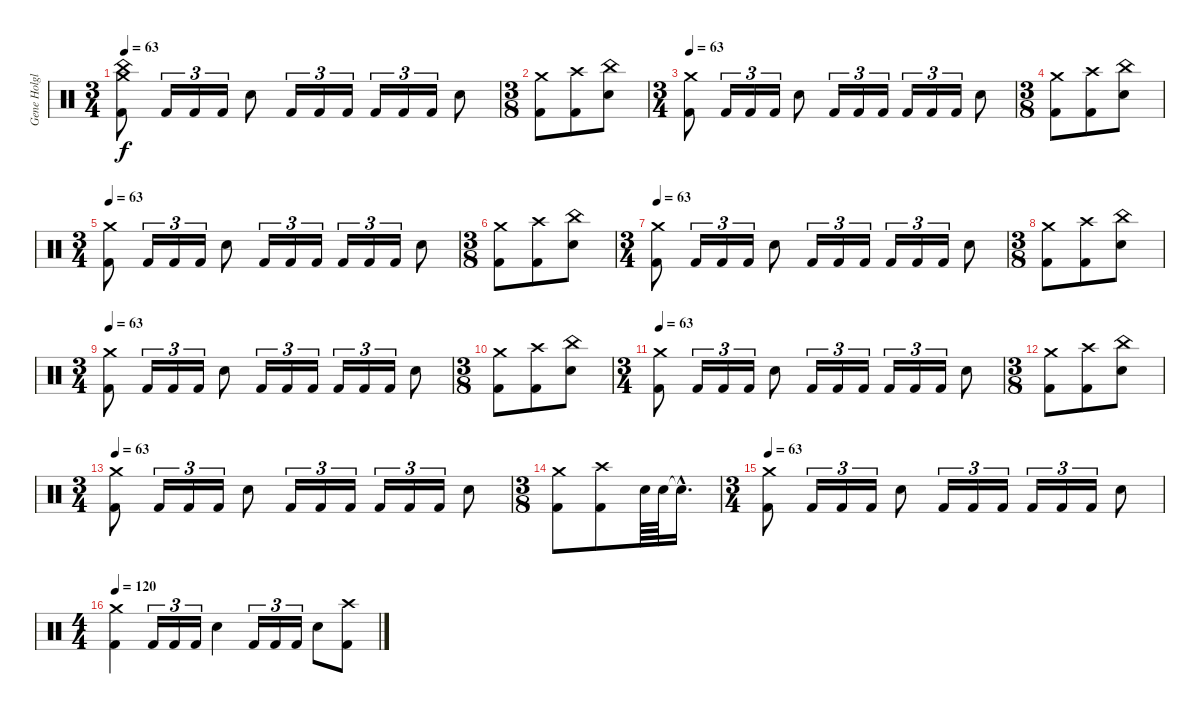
\track ("Gene Holglan" "Gene Holgl") {instrument percussion}
\staff {score}
\articulation defaults
\ts (3 4)
\tempo 63
\clef neutral
\ks c
("Crash medium (hit)" "China (hit)" "Kick (hit) 2").8{dy f} "Kick (hit) 2".16{tu (3 2)} "Kick (hit) 2".16{tu (3 2)} "Kick (hit) 2".16{tu (3 2)} "Snare (hit) 2".8 "Kick (hit) 2".16{tu (3 2)} "Kick (hit) 2".16{tu (3 2)} "Kick (hit) 2".16{tu (3 2)} "Kick (hit) 2".16{tu (3 2)} "Kick (hit) 2".16{tu (3 2)} "Kick (hit) 2".16{tu (3 2)} "Snare (hit) 2".8 |
\ts (3 8)
("Crash medium (hit)" "Kick (hit) 2").8 ("Crash high (hit)" "Kick (hit) 2").8 ("China (hit)" "Snare (hit) 2").8 |
\ts (3 4)
\tempo 63
("Crash medium (hit)" "Kick (hit) 2").8 "Kick (hit) 2".16{tu (3 2)} "Kick (hit) 2".16{tu (3 2)} "Kick (hit) 2".16{tu (3 2)} "Snare (hit) 2".8 "Kick (hit) 2".16{tu (3 2)} "Kick (hit) 2".16{tu (3 2)} "Kick (hit) 2".16{tu (3 2)} "Kick (hit) 2".16{tu (3 2)} "Kick (hit) 2".16{tu (3 2)} "Kick (hit) 2".16{tu (3 2)} "Snare (hit) 2".8 |
\ts (3 8)
("Crash medium (hit)" "Kick (hit) 2").8 ("Crash high (hit)" "Kick (hit) 2").8 ("China (hit)" "Snare (hit) 2").8 |
\ts (3 4)
\tempo 63
("Crash medium (hit)" "Kick (hit) 2").8 "Kick (hit) 2".16{tu (3 2)} "Kick (hit) 2".16{tu (3 2)} "Kick (hit) 2".16{tu (3 2)} "Snare (hit) 2".8 "Kick (hit) 2".16{tu (3 2)} "Kick (hit) 2".16{tu (3 2)} "Kick (hit) 2".16{tu (3 2)} "Kick (hit) 2".16{tu (3 2)} "Kick (hit) 2".16{tu (3 2)} "Kick (hit) 2".16{tu (3 2)} "Snare (hit) 2".8 |
\ts (3 8)
("Crash medium (hit)" "Kick (hit) 2").8 ("Crash high (hit)" "Kick (hit) 2").8 ("China (hit)" "Snare (hit) 2").8 |
\ts (3 4)
\tempo 63
("Crash medium (hit)" "Kick (hit) 2").8 "Kick (hit) 2".16{tu (3 2)} "Kick (hit) 2".16{tu (3 2)} "Kick (hit) 2".16{tu (3 2)} "Snare (hit) 2".8 "Kick (hit) 2".16{tu (3 2)} "Kick (hit) 2".16{tu (3 2)} "Kick (hit) 2".16{tu (3 2)} "Kick (hit) 2".16{tu (3 2)} "Kick (hit) 2".16{tu (3 2)} "Kick (hit) 2".16{tu (3 2)} "Snare (hit) 2".8 |
\ts (3 8)
("Crash medium (hit)" "Kick (hit) 2").8 ("Crash high (hit)" "Kick (hit) 2").8 ("China (hit)" "Snare (hit) 2").8 |
\ts (3 4)
\tempo 63
("Crash medium (hit)" "Kick (hit) 2").8 "Kick (hit) 2".16{tu (3 2)} "Kick (hit) 2".16{tu (3 2)} "Kick (hit) 2".16{tu (3 2)} "Snare (hit) 2".8 "Kick (hit) 2".16{tu (3 2)} "Kick (hit) 2".16{tu (3 2)} "Kick (hit) 2".16{tu (3 2)} "Kick (hit) 2".16{tu (3 2)} "Kick (hit) 2".16{tu (3 2)} "Kick (hit) 2".16{tu (3 2)} "Snare (hit) 2".8 |
\ts (3 8)
("Crash medium (hit)" "Kick (hit) 2").8 ("Crash high (hit)" "Kick (hit) 2").8 ("China (hit)" "Snare (hit) 2").8 |
\ts (3 4)
\tempo 63
("Crash medium (hit)" "Kick (hit) 2").8 "Kick (hit) 2".16{tu (3 2)} "Kick (hit) 2".16{tu (3 2)} "Kick (hit) 2".16{tu (3 2)} "Snare (hit) 2".8 "Kick (hit) 2".16{tu (3 2)} "Kick (hit) 2".16{tu (3 2)} "Kick (hit) 2".16{tu (3 2)} "Kick (hit) 2".16{tu (3 2)} "Kick (hit) 2".16{tu (3 2)} "Kick (hit) 2".16{tu (3 2)} "Snare (hit) 2".8 |
\ts (3 8)
("Crash medium (hit)" "Kick (hit) 2").8 ("Crash high (hit)" "Kick (hit) 2").8 ("China (hit)" "Snare (hit) 2").8 |
\ts (3 4)
\tempo 63
("Crash medium (hit)" "Kick (hit) 2").8 "Kick (hit) 2".16{tu (3 2)} "Kick (hit) 2".16{tu (3 2)} "Kick (hit) 2".16{tu (3 2)} "Snare (hit) 2".8 "Kick (hit) 2".16{tu (3 2)} "Kick (hit) 2".16{tu (3 2)} "Kick (hit) 2".16{tu (3 2)} "Kick (hit) 2".16{tu (3 2)} "Kick (hit) 2".16{tu (3 2)} "Kick (hit) 2".16{tu (3 2)} "Snare (hit) 2".8 |
\ts (3 8)
("Crash medium (hit)" "Kick (hit) 2").8 ("Crash high (hit)" "Kick (hit) 2").8 "Snare (hit) 2".64 "Snare (hit) 2".64 "Snare (hit)"{hac t}.16{d} |
\ts (3 4)
\tempo 63
("Crash medium (hit)" "Kick (hit) 2").8 "Kick (hit) 2".16{tu (3 2)} "Kick (hit) 2".16{tu (3 2)} "Kick (hit) 2".16{tu (3 2)} "Snare (hit) 2".8 "Kick (hit) 2".16{tu (3 2)} "Kick (hit) 2".16{tu (3 2)} "Kick (hit) 2".16{tu (3 2)} "Kick (hit) 2".16{tu (3 2)} "Kick (hit) 2".16{tu (3 2)} "Kick (hit) 2".16{tu (3 2)} "Snare (hit) 2".8 |
\ts (4 4)
\tempo 120
("Crash medium (hit)" "Kick (hit) 2").4 "Kick (hit) 2".16{tu (3 2)} "Kick (hit) 2".16{tu (3 2)} "Kick (hit) 2".16{tu (3 2)} "Snare (hit) 2".4 "Kick (hit) 2".16{tu (3 2)} "Kick (hit) 2".16{tu (3 2)} "Kick (hit) 2".16{tu (3 2)} "Snare (hit) 2".8 ("Crash high (hit)" "Kick (hit) 2").8
